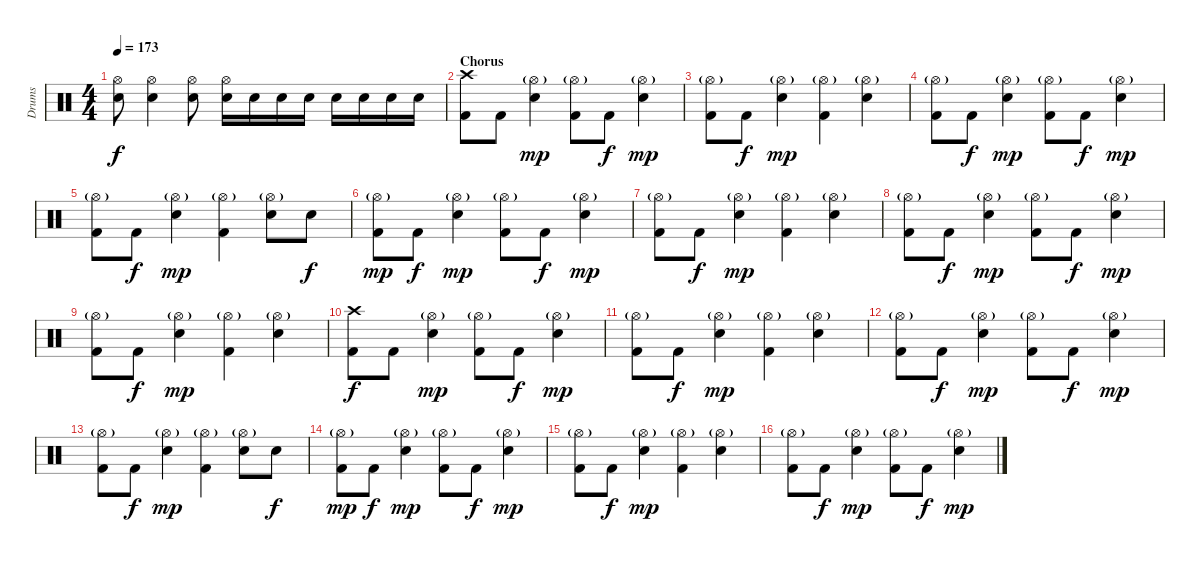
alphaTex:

\track ("Drums" "Drums") {instrument percussion}
\staff {score}
\articulation defaults
\ts (4 4)
\tempo 173
\clef neutral
\ks c
("Hi-Hat (open)" "Snare (hit) 2").8{dy f} ("Hi-Hat (open)" "Snare (hit) 2").4 ("Hi-Hat (open)" "Snare (hit) 2").8 ("Hi-Hat (open)" "Snare (hit) 2").16 "Snare (hit) 2".16 "Snare (hit) 2".16 "Snare (hit) 2".16 "Snare (hit) 2".16 "Snare (hit) 2".16 "Snare (hit) 2".16 "Snare (hit) 2".16 |
\section ("" "Chorus")
("Crash high (hit)" "Kick (hit) 2").8 "Kick (hit) 2".8 ("Hi-Hat (open)"{g} "Snare (hit) 2").4{dy mp} ("Hi-Hat (open)"{g} "Kick (hit) 2").8 "Kick (hit) 2".8{dy f} ("Hi-Hat (open)"{g} "Snare (hit) 2").4{dy mp} |
("Hi-Hat (open)"{g} "Kick (hit) 2").8 "Kick (hit) 2".8{dy f} ("Hi-Hat (open)"{g} "Snare (hit) 2").4{dy mp} ("Hi-Hat (open)"{g} "Kick (hit) 2").4 ("Hi-Hat (open)"{g} "Snare (hit) 2").4 |
("Hi-Hat (open)"{g} "Kick (hit) 2").8 "Kick (hit) 2".8{dy f} ("Hi-Hat (open)"{g} "Snare (hit) 2").4{dy mp} ("Hi-Hat (open)"{g} "Kick (hit) 2").8 "Kick (hit) 2".8{dy f} ("Hi-Hat (open)"{g} "Snare (hit) 2").4{dy mp} |
("Hi-Hat (open)"{g} "Kick (hit) 2").8 "Kick (hit) 2".8{dy f} ("Hi-Hat (open)"{g} "Snare (hit) 2").4{dy mp} ("Hi-Hat (open)"{g} "Kick (hit) 2").4 ("Hi-Hat (open)"{g} "Snare (hit) 2").8 "Snare (hit) 2".8{dy f} |
("Hi-Hat (open)"{g} "Kick (hit) 2").8{dy mp} "Kick (hit) 2".8{dy f} ("Hi-Hat (open)"{g} "Snare (hit) 2").4{dy mp} ("Hi-Hat (open)"{g} "Kick (hit) 2").8 "Kick (hit) 2".8{dy f} ("Hi-Hat (open)"{g} "Snare (hit) 2").4{dy mp} |
("Hi-Hat (open)"{g} "Kick (hit) 2").8 "Kick (hit) 2".8{dy f} ("Hi-Hat (open)"{g} "Snare (hit) 2").4{dy mp} ("Hi-Hat (open)"{g} "Kick (hit) 2").4 ("Hi-Hat (open)"{g} "Snare (hit) 2").4 |
("Hi-Hat (open)"{g} "Kick (hit) 2").8 "Kick (hit) 2".8{dy f} ("Hi-Hat (open)"{g} "Snare (hit) 2").4{dy mp} ("Hi-Hat (open)"{g} "Kick (hit) 2").8 "Kick (hit) 2".8{dy f} ("Hi-Hat (open)"{g} "Snare (hit) 2").4{dy mp} |
("Hi-Hat (open)"{g} "Kick (hit) 2").8 "Kick (hit) 2".8{dy f} ("Hi-Hat (open)"{g} "Snare (hit) 2").4{dy mp} ("Hi-Hat (open)"{g} "Kick (hit) 2").4 ("Hi-Hat (open)"{g} "Snare (hit) 2").4 |
("Crash high (hit)" "Kick (hit) 2").8{dy f} "Kick (hit) 2".8 ("Hi-Hat (open)"{g} "Snare (hit) 2").4{dy mp} ("Hi-Hat (open)"{g} "Kick (hit) 2").8 "Kick (hit) 2".8{dy f} ("Hi-Hat (open)"{g} "Snare (hit) 2").4{dy mp} |
("Hi-Hat (open)"{g} "Kick (hit) 2").8 "Kick (hit) 2".8{dy f} ("Hi-Hat (open)"{g} "Snare (hit) 2").4{dy mp} ("Hi-Hat (open)"{g} "Kick (hit) 2").4 ("Hi-Hat (open)"{g} "Snare (hit) 2").4 |
("Hi-Hat (open)"{g} "Kick (hit) 2").8 "Kick (hit) 2".8{dy f} ("Hi-Hat (open)"{g} "Snare (hit) 2").4{dy mp} ("Hi-Hat (open)"{g} "Kick (hit) 2").8 "Kick (hit) 2".8{dy f} ("Hi-Hat (open)"{g} "Snare (hit) 2").4{dy mp} |
("Hi-Hat (open)"{g} "Kick (hit) 2").8 "Kick (hit) 2".8{dy f} ("Hi-Hat (open)"{g} "Snare (hit) 2").4{dy mp} ("Hi-Hat (open)"{g} "Kick (hit) 2").4 ("Hi-Hat (open)"{g} "Snare (hit) 2").8 "Snare (hit) 2".8{dy f} |
("Hi-Hat (open)"{g} "Kick (hit) 2").8{dy mp} "Kick (hit) 2".8{dy f} ("Hi-Hat (open)"{g} "Snare (hit) 2").4{dy mp} ("Hi-Hat (open)"{g} "Kick (hit) 2").8 "Kick (hit) 2".8{dy f} ("Hi-Hat (open)"{g} "Snare (hit) 2").4{dy mp} |
("Hi-Hat (open)"{g} "Kick (hit) 2").8 "Kick (hit) 2".8{dy f} ("Hi-Hat (open)"{g} "Snare (hit) 2").4{dy mp} ("Hi-Hat (open)"{g} "Kick (hit) 2").4 ("Hi-Hat (open)"{g} "Snare (hit) 2").4 |
("Hi-Hat (open)"{g} "Kick (hit) 2").8 "Kick (hit) 2".8{dy f} ("Hi-Hat (open)"{g} "Snare (hit) 2").4{dy mp} ("Hi-Hat (open)"{g} "Kick (hit) 2").8 "Kick (hit) 2".8{dy f} ("Hi-Hat (open)"{g} "Snare (hit) 2").4{dy mp}
